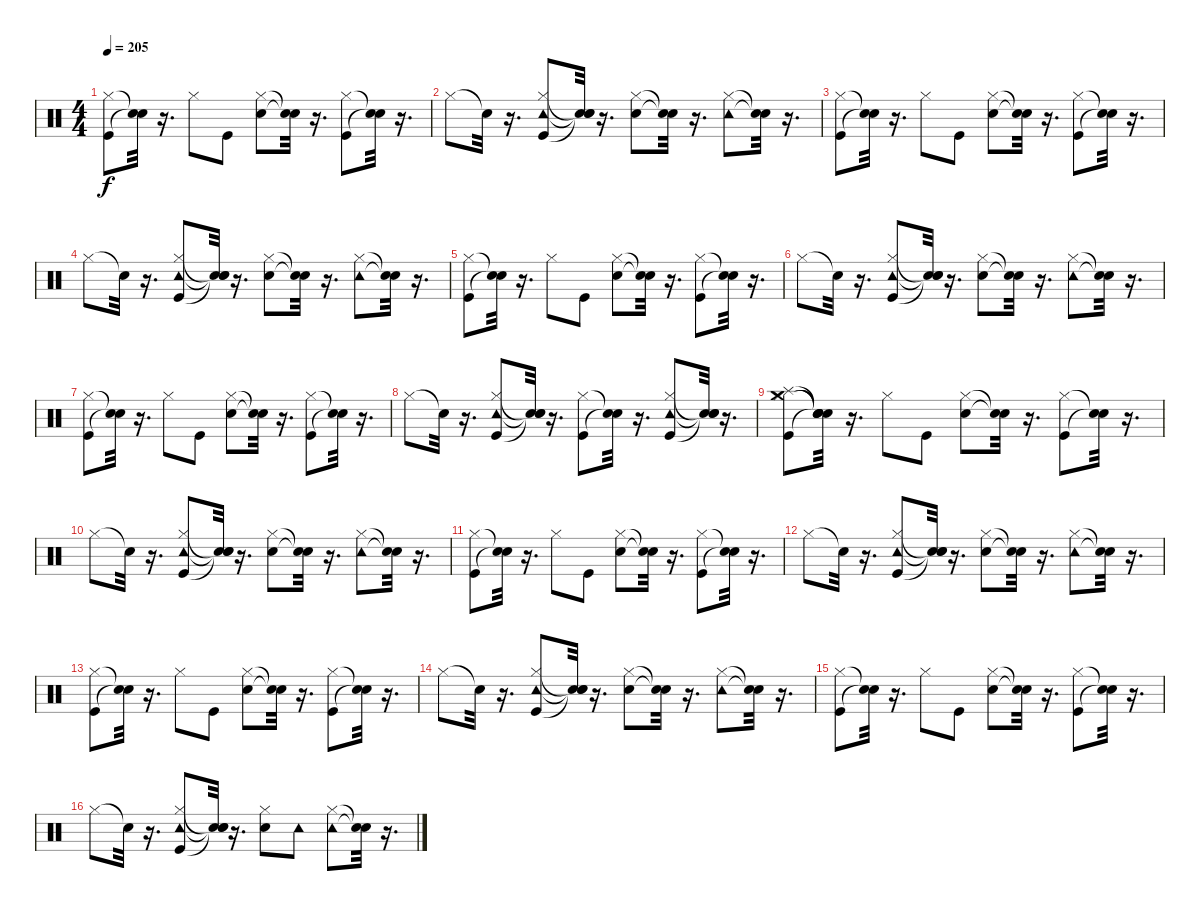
\track "" {instrument percussion}
\staff {score}
\articulation defaults
\ts (4 4)
\tempo 205
\clef neutral
\ks c
("Kick (hit)" "Hi-Hat (closed)").8{dy f} ("Snare (hit)"{t} "Snare (hit)"{t}).32 r.16{d} "Hi-Hat (closed)".8 "Kick (hit)".8 ("Hi-Hat (closed)" "Electric Snare (hit)").8 ("Snare (hit)"{t} "Snare (hit)"{t}).32 r.16{d} ("Hi-Hat (closed)" "Kick (hit)").8 ("Snare (hit)"{t} "Snare (hit)"{t}).32 r.16{d} |
"Hi-Hat (closed)".8 "Snare (hit)"{t}.32 r.16{d} ("Hi-Hat (closed)" "Kick (hit)" "Tambourine (hit)").8 ("Snare (hit)"{t} "Snare (hit)"{t} "Snare (hit)"{t}).32 r.16{d} ("Hi-Hat (closed)" "Electric Snare (hit)").8 ("Snare (hit)"{t} "Snare (hit)"{t}).32 r.16{d} ("Hi-Hat (closed)" "Tambourine (hit)").8 ("Snare (hit)"{t} "Snare (hit)"{t}).32 r.16{d} |
("Kick (hit)" "Hi-Hat (closed)").8 ("Snare (hit)"{t} "Snare (hit)"{t}).32 r.16{d} "Hi-Hat (closed)".8 "Kick (hit)".8 ("Hi-Hat (closed)" "Electric Snare (hit)").8 ("Snare (hit)"{t} "Snare (hit)"{t}).32 r.16{d} ("Hi-Hat (closed)" "Kick (hit)").8 ("Snare (hit)"{t} "Snare (hit)"{t}).32 r.16{d} |
"Hi-Hat (closed)".8 "Snare (hit)"{t}.32 r.16{d} ("Hi-Hat (closed)" "Kick (hit)" "Tambourine (hit)").8 ("Snare (hit)"{t} "Snare (hit)"{t} "Snare (hit)"{t}).32 r.16{d} ("Hi-Hat (closed)" "Electric Snare (hit)").8 ("Snare (hit)"{t} "Snare (hit)"{t}).32 r.16{d} ("Hi-Hat (closed)" "Tambourine (hit)").8 ("Snare (hit)"{t} "Snare (hit)"{t}).32 r.16{d} |
("Kick (hit)" "Hi-Hat (closed)").8 ("Snare (hit)"{t} "Snare (hit)"{t}).32 r.16{d} "Hi-Hat (closed)".8 "Kick (hit)".8 ("Hi-Hat (closed)" "Electric Snare (hit)").8 ("Snare (hit)"{t} "Snare (hit)"{t}).32 r.16{d} ("Hi-Hat (closed)" "Kick (hit)").8 ("Snare (hit)"{t} "Snare (hit)"{t}).32 r.16{d} |
"Hi-Hat (closed)".8 "Snare (hit)"{t}.32 r.16{d} ("Hi-Hat (closed)" "Kick (hit)" "Tambourine (hit)").8 ("Snare (hit)"{t} "Snare (hit)"{t} "Snare (hit)"{t}).32 r.16{d} ("Hi-Hat (closed)" "Electric Snare (hit)").8 ("Snare (hit)"{t} "Snare (hit)"{t}).32 r.16{d} ("Hi-Hat (closed)" "Tambourine (hit)").8 ("Snare (hit)"{t} "Snare (hit)"{t}).32 r.16{d} |
("Kick (hit)" "Hi-Hat (closed)").8 ("Snare (hit)"{t} "Snare (hit)"{t}).32 r.16{d} "Hi-Hat (closed)".8 "Kick (hit)".8 ("Hi-Hat (closed)" "Electric Snare (hit)").8 ("Snare (hit)"{t} "Snare (hit)"{t}).32 r.16{d} ("Hi-Hat (closed)" "Kick (hit)").8 ("Snare (hit)"{t} "Snare (hit)"{t}).32 r.16{d} |
"Hi-Hat (closed)".8 "Snare (hit)"{t}.32 r.16{d} ("Hi-Hat (closed)" "Kick (hit)" "Tambourine (hit)").8 ("Snare (hit)"{t} "Snare (hit)"{t} "Snare (hit)"{t}).32 r.16{d} ("Hi-Hat (closed)" "Kick (hit)").8 ("Snare (hit)"{t} "Snare (hit)"{t}).32 r.16{d} ("Hi-Hat (closed)" "Tambourine (hit)" "Kick (hit)").8 ("Snare (hit)"{t} "Snare (hit)"{t} "Snare (hit)"{t}).32 r.16{d} |
("Kick (hit)" "Hi-Hat (closed)" "Splash (hit)" "Crash medium (hit)").8 ("Snare (hit)"{t} "Snare (hit)"{t} "Snare (hit)"{t} "Snare (hit)"{t}).32 r.16{d} "Hi-Hat (closed)".8 "Kick (hit)".8 ("Hi-Hat (closed)" "Electric Snare (hit)").8 ("Snare (hit)"{t} "Snare (hit)"{t}).32 r.16{d} ("Hi-Hat (closed)" "Kick (hit)").8 ("Snare (hit)"{t} "Snare (hit)"{t}).32 r.16{d} |
"Hi-Hat (closed)".8 "Snare (hit)"{t}.32 r.16{d} ("Hi-Hat (closed)" "Kick (hit)" "Tambourine (hit)").8 ("Snare (hit)"{t} "Snare (hit)"{t} "Snare (hit)"{t}).32 r.16{d} ("Hi-Hat (closed)" "Electric Snare (hit)").8 ("Snare (hit)"{t} "Snare (hit)"{t}).32 r.16{d} ("Hi-Hat (closed)" "Tambourine (hit)").8 ("Snare (hit)"{t} "Snare (hit)"{t}).32 r.16{d} |
("Kick (hit)" "Hi-Hat (closed)").8 ("Snare (hit)"{t} "Snare (hit)"{t}).32 r.16{d} "Hi-Hat (closed)".8 "Kick (hit)".8 ("Hi-Hat (closed)" "Electric Snare (hit)").8 ("Snare (hit)"{t} "Snare (hit)"{t}).32 r.16{d} ("Hi-Hat (closed)" "Kick (hit)").8 ("Snare (hit)"{t} "Snare (hit)"{t}).32 r.16{d} |
"Hi-Hat (closed)".8 "Snare (hit)"{t}.32 r.16{d} ("Hi-Hat (closed)" "Kick (hit)" "Tambourine (hit)").8 ("Snare (hit)"{t} "Snare (hit)"{t} "Snare (hit)"{t}).32 r.16{d} ("Hi-Hat (closed)" "Electric Snare (hit)").8 ("Snare (hit)"{t} "Snare (hit)"{t}).32 r.16{d} ("Hi-Hat (closed)" "Tambourine (hit)").8 ("Snare (hit)"{t} "Snare (hit)"{t}).32 r.16{d} |
("Kick (hit)" "Hi-Hat (closed)").8 ("Snare (hit)"{t} "Snare (hit)"{t}).32 r.16{d} "Hi-Hat (closed)".8 "Kick (hit)".8 ("Hi-Hat (closed)" "Electric Snare (hit)").8 ("Snare (hit)"{t} "Snare (hit)"{t}).32 r.16{d} ("Hi-Hat (closed)" "Kick (hit)").8 ("Snare (hit)"{t} "Snare (hit)"{t}).32 r.16{d} |
"Hi-Hat (closed)".8 "Snare (hit)"{t}.32 r.16{d} ("Hi-Hat (closed)" "Kick (hit)" "Tambourine (hit)").8 ("Snare (hit)"{t} "Snare (hit)"{t} "Snare (hit)"{t}).32 r.16{d} ("Hi-Hat (closed)" "Electric Snare (hit)").8 ("Snare (hit)"{t} "Snare (hit)"{t}).32 r.16{d} ("Hi-Hat (closed)" "Tambourine (hit)").8 ("Snare (hit)"{t} "Snare (hit)"{t}).32 r.16{d} |
("Kick (hit)" "Hi-Hat (closed)").8 ("Snare (hit)"{t} "Snare (hit)"{t}).32 r.16{d} "Hi-Hat (closed)".8 "Kick (hit)".8 ("Hi-Hat (closed)" "Electric Snare (hit)").8 ("Snare (hit)"{t} "Snare (hit)"{t}).32 r.16{d} ("Hi-Hat (closed)" "Kick (hit)").8 ("Snare (hit)"{t} "Snare (hit)"{t}).32 r.16{d} |
"Hi-Hat (closed)".8 "Snare (hit)"{t}.32 r.16{d} ("Hi-Hat (closed)" "Kick (hit)" "Tambourine (hit)").8 ("Snare (hit)"{t} "Snare (hit)"{t} "Snare (hit)"{t}).32 r.16{d} ("Hi-Hat (closed)" "Electric Snare (hit)").8 "Tambourine (hit)".8 ("Hi-Hat (closed)" "Tambourine (hit)").8 ("Snare (hit)"{t} "Snare (hit)"{t}).32 r.16{d}
